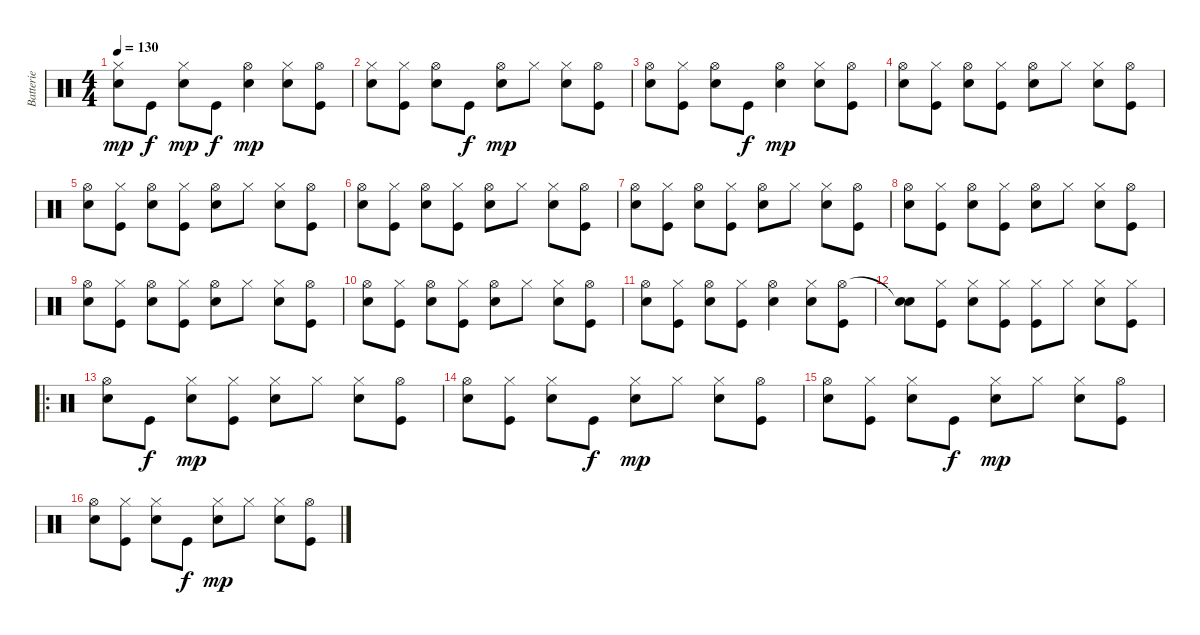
\track ("Batterie" "Batterie") {instrument percussion}
\staff {score}
\articulation defaults
\ts (4 4)
\tempo 130
\clef neutral
\ks c
("Hi-Hat (closed)" "Snare (hit) 2").8{dy mp} "Kick (hit)".8{dy f} ("Hi-Hat (closed)" "Snare (hit) 2").8{dy mp} "Kick (hit)".8{dy f} ("Hi-Hat (open)" "Snare (hit) 2").4{dy mp} ("Hi-Hat (closed)" "Snare (hit) 2").8 ("Hi-Hat (open)" "Kick (hit)").8 |
("Hi-Hat (closed)" "Snare (hit) 2").8 ("Hi-Hat (closed)" "Kick (hit)").8 ("Hi-Hat (open)" "Snare (hit) 2").8 "Kick (hit)".8{dy f} ("Hi-Hat (open)" "Snare (hit) 2").8{dy mp} "Hi-Hat (closed)".8 ("Hi-Hat (closed)" "Snare (hit) 2").8 ("Hi-Hat (open)" "Kick (hit)").8 |
("Hi-Hat (open)" "Snare (hit) 2").8 ("Hi-Hat (closed)" "Kick (hit)").8 ("Hi-Hat (open)" "Snare (hit) 2").8 "Kick (hit)".8{dy f} ("Hi-Hat (open)" "Snare (hit) 2").4{dy mp} ("Hi-Hat (closed)" "Snare (hit) 2").8 ("Hi-Hat (open)" "Kick (hit)").8 |
("Hi-Hat (open)" "Snare (hit) 2").8 ("Hi-Hat (closed)" "Kick (hit)").8 ("Hi-Hat (open)" "Snare (hit) 2").8 ("Hi-Hat (closed)" "Kick (hit)").8 ("Hi-Hat (open)" "Snare (hit) 2").8 "Hi-Hat (closed)".8 ("Hi-Hat (closed)" "Snare (hit) 2").8 ("Hi-Hat (open)" "Kick (hit)").8 |
("Hi-Hat (open)" "Snare (hit) 2").8 ("Hi-Hat (closed)" "Kick (hit)").8 ("Hi-Hat (open)" "Snare (hit) 2").8 ("Hi-Hat (closed)" "Kick (hit)").8 ("Hi-Hat (open)" "Snare (hit) 2").8 "Hi-Hat (closed)".8 ("Hi-Hat (closed)" "Snare (hit) 2").8 ("Hi-Hat (open)" "Kick (hit)").8 |
("Hi-Hat (open)" "Snare (hit) 2").8 ("Hi-Hat (closed)" "Kick (hit)").8 ("Hi-Hat (open)" "Snare (hit) 2").8 ("Hi-Hat (closed)" "Kick (hit)").8 ("Hi-Hat (open)" "Snare (hit) 2").8 "Hi-Hat (closed)".8 ("Hi-Hat (closed)" "Snare (hit) 2").8 ("Hi-Hat (open)" "Kick (hit)").8 |
("Hi-Hat (open)" "Snare (hit) 2").8 ("Hi-Hat (closed)" "Kick (hit)").8 ("Hi-Hat (open)" "Snare (hit) 2").8 ("Hi-Hat (closed)" "Kick (hit)").8 ("Hi-Hat (open)" "Snare (hit) 2").8 "Hi-Hat (closed)".8 ("Hi-Hat (closed)" "Snare (hit) 2").8 ("Hi-Hat (open)" "Kick (hit)").8 |
("Hi-Hat (open)" "Snare (hit) 2").8 ("Hi-Hat (closed)" "Kick (hit)").8 ("Hi-Hat (open)" "Snare (hit) 2").8 ("Hi-Hat (closed)" "Kick (hit)").8 ("Hi-Hat (open)" "Snare (hit) 2").8 "Hi-Hat (closed)".8 ("Hi-Hat (closed)" "Snare (hit) 2").8 ("Hi-Hat (open)" "Kick (hit)").8 |
("Hi-Hat (open)" "Snare (hit) 2").8 ("Hi-Hat (closed)" "Kick (hit)").8 ("Hi-Hat (open)" "Snare (hit) 2").8 ("Hi-Hat (closed)" "Kick (hit)").8 ("Hi-Hat (open)" "Snare (hit) 2").8 "Hi-Hat (closed)".8 ("Hi-Hat (closed)" "Snare (hit) 2").8 ("Hi-Hat (open)" "Kick (hit)").8 |
("Hi-Hat (open)" "Snare (hit) 2").8 ("Hi-Hat (closed)" "Kick (hit)").8 ("Hi-Hat (open)" "Snare (hit) 2").8 ("Hi-Hat (closed)" "Kick (hit)").8 ("Hi-Hat (open)" "Snare (hit) 2").8 "Hi-Hat (closed)".8 ("Hi-Hat (closed)" "Snare (hit) 2").8 ("Hi-Hat (open)" "Kick (hit)").8 |
("Hi-Hat (open)" "Snare (hit) 2").8 ("Hi-Hat (closed)" "Kick (hit)").8 ("Hi-Hat (open)" "Snare (hit) 2").8 ("Hi-Hat (closed)" "Kick (hit)").8 ("Hi-Hat (open)" "Snare (hit) 2").4 ("Hi-Hat (closed)" "Snare (hit) 2").8 ("Hi-Hat (open)" "Kick (hit)").8 |
("Snare (hit)"{t} "Snare (hit) 2").8 ("Hi-Hat (closed)" "Kick (hit)").8 ("Hi-Hat (closed)" "Snare (hit) 2").8 ("Hi-Hat (closed)" "Kick (hit)").8 ("Hi-Hat (closed)" "Kick (hit)").8 "Hi-Hat (closed)".8 ("Hi-Hat (closed)" "Snare (hit) 2").8 ("Hi-Hat (closed)" "Kick (hit)").8 |
\ro
("Hi-Hat (open)" "Snare (hit) 2").8 "Kick (hit)".8{dy f} ("Hi-Hat (closed)" "Snare (hit) 2").8{dy mp} ("Hi-Hat (closed)" "Kick (hit)").8 ("Hi-Hat (closed)" "Snare (hit) 2").8 "Hi-Hat (closed)".8 ("Hi-Hat (closed)" "Snare (hit) 2").8 ("Hi-Hat (open)" "Kick (hit)").8 |
("Hi-Hat (open)" "Snare (hit) 2").8 ("Hi-Hat (closed)" "Kick (hit)").8 ("Hi-Hat (closed)" "Snare (hit) 2").8 "Kick (hit)".8{dy f} ("Hi-Hat (closed)" "Snare (hit) 2").8{dy mp} "Hi-Hat (closed)".8 ("Hi-Hat (closed)" "Snare (hit) 2").8 ("Hi-Hat (open)" "Kick (hit)").8 |
("Hi-Hat (open)" "Snare (hit) 2").8 ("Hi-Hat (closed)" "Kick (hit)").8 ("Hi-Hat (closed)" "Snare (hit) 2").8 "Kick (hit)".8{dy f} ("Hi-Hat (closed)" "Snare (hit) 2").8{dy mp} "Hi-Hat (closed)".8 ("Hi-Hat (closed)" "Snare (hit) 2").8 ("Hi-Hat (open)" "Kick (hit)").8 |
("Hi-Hat (open)" "Snare (hit) 2").8 ("Hi-Hat (closed)" "Kick (hit)").8 ("Hi-Hat (closed)" "Snare (hit) 2").8 "Kick (hit)".8{dy f} ("Hi-Hat (closed)" "Snare (hit) 2").8{dy mp} "Hi-Hat (closed)".8 ("Hi-Hat (closed)" "Snare (hit) 2").8 ("Hi-Hat (open)" "Kick (hit)").8
